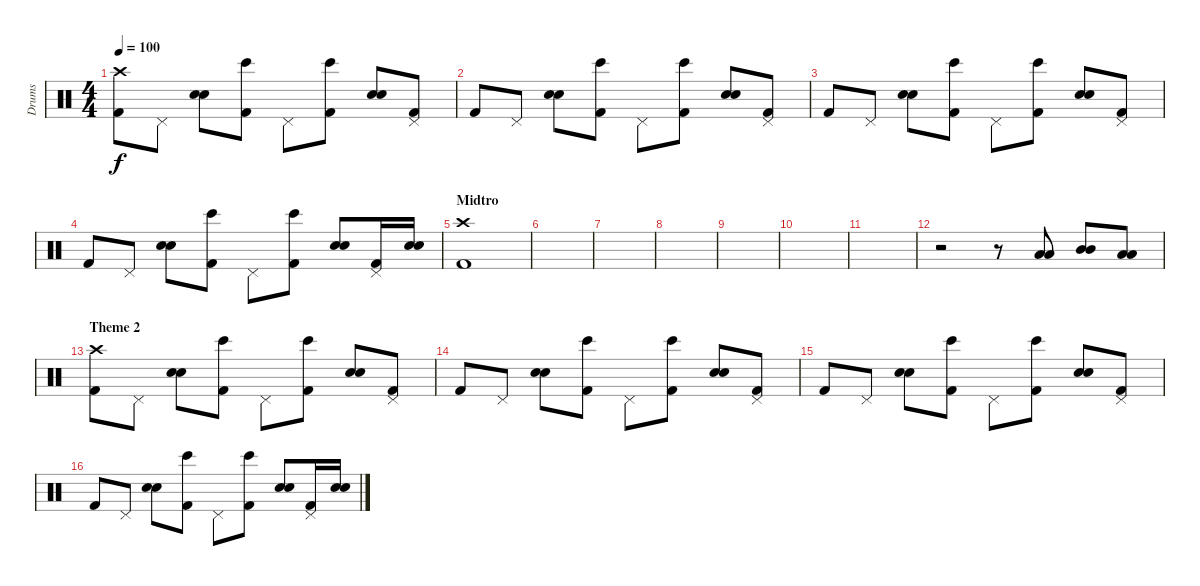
\track ("Drums" "Drums") {instrument percussion}
\staff {score}
\articulation defaults
\ts (4 4)
\tempo 100
\clef neutral
\ks c
("Kick (hit) 2" "Crash high (hit)").8{dy f} "Pedal Hi-Hat (hit)".8 ("Snare (hit) 2" "Electric Snare (hit)").8 ("Kick (hit) 2" "Bongo High (hit)").8 "Pedal Hi-Hat (hit)".8 ("Kick (hit) 2" "Bongo High (hit)").8 ("Snare (hit) 2" "Electric Snare (hit)").8 ("Kick (hit) 2" "Pedal Hi-Hat (hit)").8 |
"Kick (hit) 2".8 "Pedal Hi-Hat (hit)".8 ("Snare (hit) 2" "Electric Snare (hit)").8 ("Kick (hit) 2" "Bongo High (hit)").8 "Pedal Hi-Hat (hit)".8 ("Kick (hit) 2" "Bongo High (hit)").8 ("Snare (hit) 2" "Electric Snare (hit)").8 ("Kick (hit) 2" "Pedal Hi-Hat (hit)").8 |
"Kick (hit) 2".8 "Pedal Hi-Hat (hit)".8 ("Snare (hit) 2" "Electric Snare (hit)").8 ("Kick (hit) 2" "Bongo High (hit)").8 "Pedal Hi-Hat (hit)".8 ("Kick (hit) 2" "Bongo High (hit)").8 ("Snare (hit) 2" "Electric Snare (hit)").8 ("Kick (hit) 2" "Pedal Hi-Hat (hit)").8 |
"Kick (hit) 2".8 "Pedal Hi-Hat (hit)".8 ("Snare (hit) 2" "Electric Snare (hit)").8 ("Kick (hit) 2" "Bongo High (hit)").8 "Pedal Hi-Hat (hit)".8 ("Kick (hit) 2" "Bongo High (hit)").8 ("Snare (hit) 2" "Electric Snare (hit)").8 ("Kick (hit) 2" "Pedal Hi-Hat (hit)").16 ("Snare (hit) 2" "Electric Snare (hit)").16 |
\section ("" "Midtro")
("Kick (hit) 2" "Crash high (hit)").1 |
|
|
|
|
|
|
r.2 r.8 ("Low Tom (hit)" "Low Tom (hit)").8 ("Mid Tom (hit)" "Mid Tom (hit)").8 ("Low Tom (hit)" "Low Tom (hit)").8 |
\section ("" "Theme 2")
("Kick (hit) 2" "Crash high (hit)").8 "Pedal Hi-Hat (hit)".8 ("Snare (hit) 2" "Electric Snare (hit)").8 ("Kick (hit) 2" "Bongo High (hit)").8 "Pedal Hi-Hat (hit)".8 ("Kick (hit) 2" "Bongo High (hit)").8 ("Snare (hit) 2" "Electric Snare (hit)").8 ("Kick (hit) 2" "Pedal Hi-Hat (hit)").8 |
"Kick (hit) 2".8 "Pedal Hi-Hat (hit)".8 ("Snare (hit) 2" "Electric Snare (hit)").8 ("Kick (hit) 2" "Bongo High (hit)").8 "Pedal Hi-Hat (hit)".8 ("Kick (hit) 2" "Bongo High (hit)").8 ("Snare (hit) 2" "Electric Snare (hit)").8 ("Kick (hit) 2" "Pedal Hi-Hat (hit)").8 |
"Kick (hit) 2".8 "Pedal Hi-Hat (hit)".8 ("Snare (hit) 2" "Electric Snare (hit)").8 ("Kick (hit) 2" "Bongo High (hit)").8 "Pedal Hi-Hat (hit)".8 ("Kick (hit) 2" "Bongo High (hit)").8 ("Snare (hit) 2" "Electric Snare (hit)").8 ("Kick (hit) 2" "Pedal Hi-Hat (hit)").8 |
"Kick (hit) 2".8 "Pedal Hi-Hat (hit)".8 ("Snare (hit) 2" "Electric Snare (hit)").8 ("Kick (hit) 2" "Bongo High (hit)").8 "Pedal Hi-Hat (hit)".8 ("Kick (hit) 2" "Bongo High (hit)").8 ("Snare (hit) 2" "Electric Snare (hit)").8 ("Kick (hit) 2" "Pedal Hi-Hat (hit)").16 ("Snare (hit) 2" "Electric Snare (hit)").16
